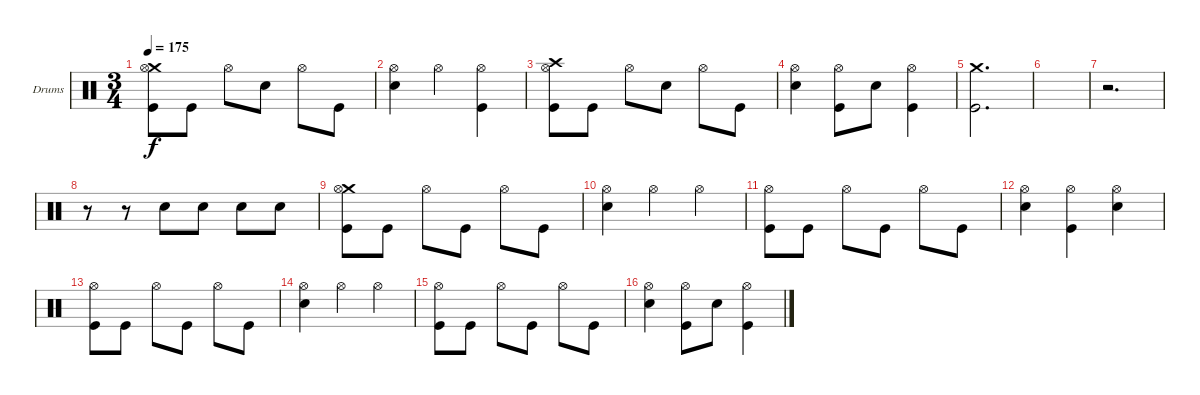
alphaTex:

\bracketExtendMode groupsimilarinstruments
\firstSystemTrackNameOrientation horizontal
\otherSystemsTrackNameOrientation horizontal
\track ("Drums" "Drums") {instrument percussion}
\staff {score}
\articulation defaults
\ts (3 4)
\tempo 175
\clef neutral
\ks c
("Crash medium (hit)" "Hi-Hat (open)" "Kick (hit)").8{dy f} "Kick (hit)".8 "Hi-Hat (open)".8 "Snare (hit) 2".8 "Hi-Hat (open)".8 "Kick (hit)".8 |
("Hi-Hat (open)" "Snare (hit) 2").4 "Hi-Hat (open)".4 ("Hi-Hat (open)" "Kick (hit)").4 |
("Crash high (hit)" "Hi-Hat (open)" "Kick (hit)").8 "Kick (hit)".8 "Hi-Hat (open)".8 "Snare (hit) 2".8 "Hi-Hat (open)".8 "Kick (hit)".8 |
("Hi-Hat (open)" "Snare (hit) 2").4 ("Hi-Hat (open)" "Kick (hit)").8 "Snare (hit) 2".8 ("Hi-Hat (open)" "Kick (hit)").4 |
("Crash medium (hit)" "Kick (hit)").2{d} |
|
r.2{d} |
r.8 r.8 "Snare (hit) 2".8 "Snare (hit) 2".8 "Snare (hit) 2".8 "Snare (hit) 2".8 |
("Crash medium (hit)" "Hi-Hat (open)" "Kick (hit)").8 "Kick (hit)".8 "Hi-Hat (open)".8 "Kick (hit)".8 "Hi-Hat (open)".8 "Kick (hit)".8 |
("Hi-Hat (open)" "Snare (hit) 2").4 "Hi-Hat (open)".4 "Hi-Hat (open)".4 |
("Hi-Hat (open)" "Kick (hit)").8 "Kick (hit)".8 "Hi-Hat (open)".8 "Kick (hit)".8 "Hi-Hat (open)".8 "Kick (hit)".8 |
("Hi-Hat (open)" "Snare (hit) 2").4 ("Hi-Hat (open)" "Kick (hit)").4 ("Hi-Hat (open)" "Snare (hit) 2").4 |
("Hi-Hat (open)" "Kick (hit)").8 "Kick (hit)".8 "Hi-Hat (open)".8 "Kick (hit)".8 "Hi-Hat (open)".8 "Kick (hit)".8 |
("Hi-Hat (open)" "Snare (hit) 2").4 "Hi-Hat (open)".4 "Hi-Hat (open)".4 |
("Hi-Hat (open)" "Kick (hit)").8 "Kick (hit)".8 "Hi-Hat (open)".8 "Kick (hit)".8 "Hi-Hat (open)".8 "Kick (hit)".8 |
("Hi-Hat (open)" "Snare (hit) 2").4 ("Hi-Hat (open)" "Kick (hit)").8 "Snare (hit) 2".8 ("Hi-Hat (open)" "Kick (hit)").4
